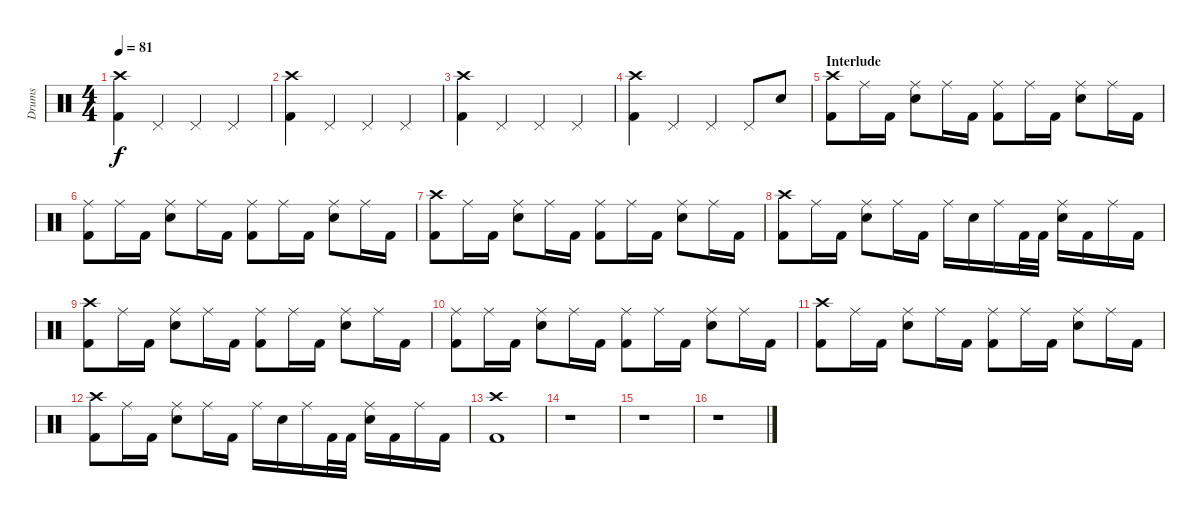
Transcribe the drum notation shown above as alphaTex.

\track ("Drums" "Drums") {instrument percussion}
\staff {score}
\articulation defaults
\ts (4 4)
\tempo 81
\clef neutral
\ks c
("Crash high (hit)" "Kick (hit) 2").4{dy f} "Pedal Hi-Hat (hit)".4 "Pedal Hi-Hat (hit)".4 "Pedal Hi-Hat (hit)".4 |
("Crash high (hit)" "Kick (hit) 2").4 "Pedal Hi-Hat (hit)".4 "Pedal Hi-Hat (hit)".4 "Pedal Hi-Hat (hit)".4 |
("Crash high (hit)" "Kick (hit) 2").4 "Pedal Hi-Hat (hit)".4 "Pedal Hi-Hat (hit)".4 "Pedal Hi-Hat (hit)".4 |
("Crash high (hit)" "Kick (hit) 2").4 "Pedal Hi-Hat (hit)".4 "Pedal Hi-Hat (hit)".4 "Pedal Hi-Hat (hit)".8 "Snare (hit) 2".8 |
\section ("" "Interlude")
("Crash high (hit)" "Kick (hit) 2").8 "Ride (middle)".16 "Kick (hit) 2".16 ("Ride (middle)" "Snare (hit) 2").8 "Ride (middle)".16 "Kick (hit) 2".16 ("Ride (middle)" "Kick (hit) 2").8 "Ride (middle)".16 "Kick (hit) 2".16 ("Ride (middle)" "Snare (hit) 2").8 "Ride (middle)".16 "Kick (hit) 2".16 |
("Ride (middle)" "Kick (hit) 2").8 "Ride (middle)".16 "Kick (hit) 2".16 ("Ride (middle)" "Snare (hit) 2").8 "Ride (middle)".16 "Kick (hit) 2".16 ("Ride (middle)" "Kick (hit) 2").8 "Ride (middle)".16 "Kick (hit) 2".16 ("Ride (middle)" "Snare (hit) 2").8 "Ride (middle)".16 "Kick (hit) 2".16 |
("Crash high (hit)" "Kick (hit) 2").8 "Ride (middle)".16 "Kick (hit) 2".16 ("Ride (middle)" "Snare (hit) 2").8 "Ride (middle)".16 "Kick (hit) 2".16 ("Ride (middle)" "Kick (hit) 2").8 "Ride (middle)".16 "Kick (hit) 2".16 ("Ride (middle)" "Snare (hit) 2").8 "Ride (middle)".16 "Kick (hit) 2".16 |
("Crash high (hit)" "Kick (hit) 2").8 "Ride (middle)".16 "Kick (hit) 2".16 ("Ride (middle)" "Snare (hit) 2").8 "Ride (middle)".16 "Kick (hit) 2".16 "Ride (middle)".16 "Snare (hit) 2".16 "Ride (middle)".16 "Kick (hit) 2".32 "Kick (hit) 2".32 ("Ride (middle)" "Snare (hit) 2").16 "Kick (hit) 2".16 "Ride (middle)".16 "Kick (hit) 2".16 |
("Crash high (hit)" "Kick (hit) 2").8 "Ride (middle)".16 "Kick (hit) 2".16 ("Ride (middle)" "Snare (hit) 2").8 "Ride (middle)".16 "Kick (hit) 2".16 ("Ride (middle)" "Kick (hit) 2").8 "Ride (middle)".16 "Kick (hit) 2".16 ("Ride (middle)" "Snare (hit) 2").8 "Ride (middle)".16 "Kick (hit) 2".16 |
("Ride (middle)" "Kick (hit) 2").8 "Ride (middle)".16 "Kick (hit) 2".16 ("Ride (middle)" "Snare (hit) 2").8 "Ride (middle)".16 "Kick (hit) 2".16 ("Ride (middle)" "Kick (hit) 2").8 "Ride (middle)".16 "Kick (hit) 2".16 ("Ride (middle)" "Snare (hit) 2").8 "Ride (middle)".16 "Kick (hit) 2".16 |
("Crash high (hit)" "Kick (hit) 2").8 "Ride (middle)".16 "Kick (hit) 2".16 ("Ride (middle)" "Snare (hit) 2").8 "Ride (middle)".16 "Kick (hit) 2".16 ("Ride (middle)" "Kick (hit) 2").8 "Ride (middle)".16 "Kick (hit) 2".16 ("Ride (middle)" "Snare (hit) 2").8 "Ride (middle)".16 "Kick (hit) 2".16 |
("Crash high (hit)" "Kick (hit) 2").8 "Ride (middle)".16 "Kick (hit) 2".16 ("Ride (middle)" "Snare (hit) 2").8 "Ride (middle)".16 "Kick (hit) 2".16 "Ride (middle)".16 "Snare (hit) 2".16 "Ride (middle)".16 "Kick (hit) 2".32 "Kick (hit) 2".32 ("Ride (middle)" "Snare (hit) 2").16 "Kick (hit) 2".16 "Ride (middle)".16 "Kick (hit) 2".16 |
("Crash high (hit)" "Kick (hit) 2").1 |
r.1 |
r.1 |
r.1
